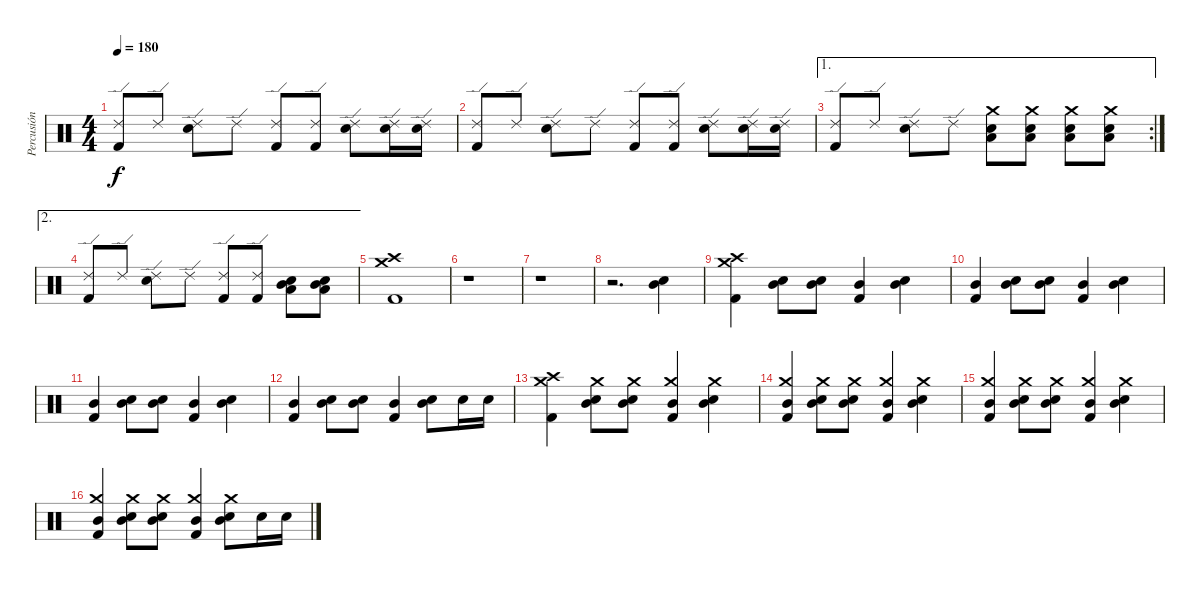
\track ("Percusión" "Percusión") {instrument percussion}
\staff {score}
\articulation defaults
\ts (4 4)
\tempo 180
\clef neutral
\ks c
("Ride (edge) 2" "Kick (hit) 2").8{dy f} "Ride (edge) 2".8 ("Ride (edge) 2" "Snare (hit) 2").8 "Ride (edge) 2".8 ("Ride (edge) 2" "Kick (hit) 2").8 ("Ride (edge) 2" "Kick (hit) 2").8 ("Ride (edge) 2" "Snare (hit) 2").8 ("Ride (edge) 2" "Snare (hit) 2").16 ("Ride (edge) 2" "Snare (hit) 2").16 |
("Ride (edge) 2" "Kick (hit) 2").8 "Ride (edge) 2".8 ("Ride (edge) 2" "Snare (hit) 2").8 "Ride (edge) 2".8 ("Ride (edge) 2" "Kick (hit) 2").8 ("Ride (edge) 2" "Kick (hit) 2").8 ("Ride (edge) 2" "Snare (hit) 2").8 ("Ride (edge) 2" "Snare (hit) 2").16 ("Ride (edge) 2" "Snare (hit) 2").16 |
\ae 1
\rc 2
("Ride (edge) 2" "Kick (hit) 2").8 "Ride (edge) 2".8 ("Ride (edge) 2" "Snare (hit) 2").8 "Ride (edge) 2".8 ("Crash medium (hit)" "Low Tom (hit)" "Snare (hit) 2").8 ("Crash medium (hit)" "Low Tom (hit)" "Snare (hit) 2").8 ("Crash medium (hit)" "Low Tom (hit)" "Snare (hit) 2").8 ("Crash medium (hit)" "Low Tom (hit)" "Snare (hit) 2").8 |
\ae 2
("Ride (edge) 2" "Kick (hit) 2").8 "Ride (edge) 2".8 ("Ride (edge) 2" "Snare (hit) 2").8 "Ride (edge) 2".8 ("Ride (edge) 2" "Kick (hit) 2").8 ("Ride (edge) 2" "Kick (hit) 2").8 ("Mid Tom (hit)" "Snare (hit) 2" "Low Tom (hit)").8 ("Mid Tom (hit)" "Snare (hit) 2" "Low Tom (hit)").8 |
("Crash medium (hit)" "Crash high (hit)" "Kick (hit) 2").1 |
r.1 |
r.1 |
r.2{d} ("Mid Tom (hit)" "Snare (hit) 2").4 |
("Crash medium (hit)" "Crash high (hit)" "Kick (hit) 2").4 ("Mid Tom (hit)" "Snare (hit) 2").8 ("Mid Tom (hit)" "Snare (hit) 2").8 ("Mid Tom (hit)" "Kick (hit) 2").4 ("Mid Tom (hit)" "Snare (hit) 2").4 |
("Mid Tom (hit)" "Kick (hit) 2").4 ("Mid Tom (hit)" "Snare (hit) 2").8 ("Mid Tom (hit)" "Snare (hit) 2").8 ("Mid Tom (hit)" "Kick (hit) 2").4 ("Mid Tom (hit)" "Snare (hit) 2").4 |
("Mid Tom (hit)" "Kick (hit) 2").4 ("Mid Tom (hit)" "Snare (hit) 2").8 ("Mid Tom (hit)" "Snare (hit) 2").8 ("Mid Tom (hit)" "Kick (hit) 2").4 ("Mid Tom (hit)" "Snare (hit) 2").4 |
("Mid Tom (hit)" "Kick (hit) 2").4 ("Mid Tom (hit)" "Snare (hit) 2").8 ("Mid Tom (hit)" "Snare (hit) 2").8 ("Mid Tom (hit)" "Kick (hit) 2").4 ("Mid Tom (hit)" "Snare (hit) 2").8 "Snare (hit) 2".16 "Snare (hit) 2".16 |
("Crash medium (hit)" "Crash high (hit)" "Kick (hit) 2").4 ("Crash medium (hit)" "Mid Tom (hit)" "Snare (hit) 2").8 ("Crash medium (hit)" "Mid Tom (hit)" "Snare (hit) 2").8 ("Crash medium (hit)" "Mid Tom (hit)" "Kick (hit) 2").4 ("Crash medium (hit)" "Mid Tom (hit)" "Snare (hit) 2").4 |
("Crash medium (hit)" "Mid Tom (hit)" "Kick (hit) 2").4 ("Crash medium (hit)" "Mid Tom (hit)" "Snare (hit) 2").8 ("Crash medium (hit)" "Mid Tom (hit)" "Snare (hit) 2").8 ("Crash medium (hit)" "Mid Tom (hit)" "Kick (hit) 2").4 ("Crash medium (hit)" "Mid Tom (hit)" "Snare (hit) 2").4 |
("Crash medium (hit)" "Mid Tom (hit)" "Kick (hit) 2").4 ("Crash medium (hit)" "Mid Tom (hit)" "Snare (hit) 2").8 ("Crash medium (hit)" "Mid Tom (hit)" "Snare (hit) 2").8 ("Crash medium (hit)" "Mid Tom (hit)" "Kick (hit) 2").4 ("Crash medium (hit)" "Mid Tom (hit)" "Snare (hit) 2").4 |
("Crash medium (hit)" "Mid Tom (hit)" "Kick (hit) 2").4 ("Crash medium (hit)" "Mid Tom (hit)" "Snare (hit) 2").8 ("Crash medium (hit)" "Mid Tom (hit)" "Snare (hit) 2").8 ("Crash medium (hit)" "Mid Tom (hit)" "Kick (hit) 2").4 ("Crash medium (hit)" "Mid Tom (hit)" "Snare (hit) 2").8 "Snare (hit) 2".16 "Snare (hit) 2".16
